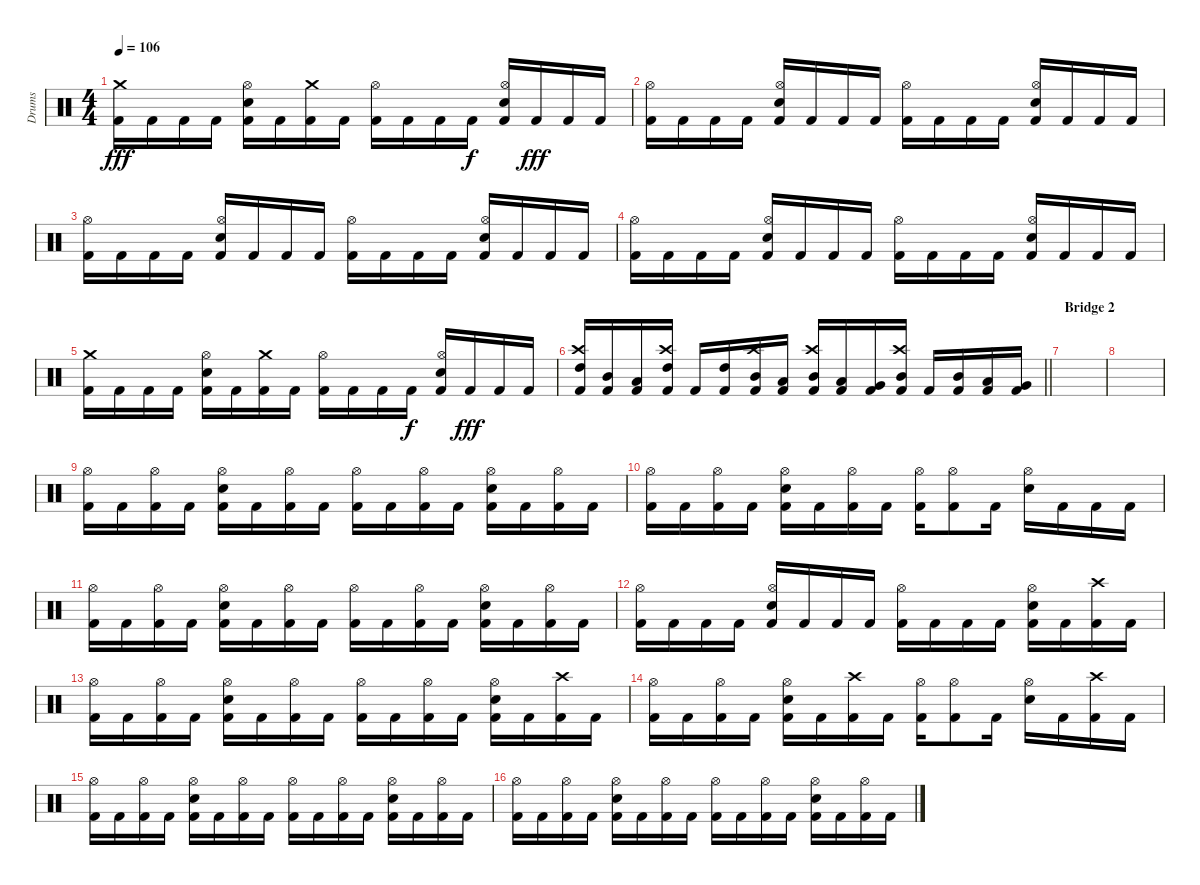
\track ("Drums" "Drums") {instrument percussion}
\staff {score}
\articulation defaults
\ts (4 4)
\tempo 106
\clef neutral
\ks c
("Crash medium (hit)" "Kick (hit) 2").16{dy fff} "Kick (hit) 2".16 "Kick (hit) 2".16 "Kick (hit) 2".16 ("Hi-Hat (open)" "Snare (hit) 2" "Kick (hit) 2").16 "Kick (hit) 2".16 ("Crash medium (hit)" "Kick (hit) 2").16 "Kick (hit) 2".16 ("Hi-Hat (open)" "Kick (hit) 2").16 "Kick (hit) 2".16 "Kick (hit) 2".16 "Kick (hit) 2".16{dy f} ("Hi-Hat (open)" "Snare (hit) 2" "Kick (hit) 2").16 "Kick (hit) 2".16{dy fff} "Kick (hit) 2".16 "Kick (hit) 2".16 |
("Hi-Hat (open)" "Kick (hit) 2").16 "Kick (hit) 2".16 "Kick (hit) 2".16 "Kick (hit) 2".16 ("Hi-Hat (open)" "Snare (hit) 2" "Kick (hit) 2").16 "Kick (hit) 2".16 "Kick (hit) 2".16 "Kick (hit) 2".16 ("Hi-Hat (open)" "Kick (hit) 2").16 "Kick (hit) 2".16 "Kick (hit) 2".16 "Kick (hit) 2".16 ("Hi-Hat (open)" "Snare (hit) 2" "Kick (hit) 2").16 "Kick (hit) 2".16 "Kick (hit) 2".16 "Kick (hit) 2".16 |
("Hi-Hat (open)" "Kick (hit) 2").16 "Kick (hit) 2".16 "Kick (hit) 2".16 "Kick (hit) 2".16 ("Hi-Hat (open)" "Snare (hit) 2" "Kick (hit) 2").16 "Kick (hit) 2".16 "Kick (hit) 2".16 "Kick (hit) 2".16 ("Hi-Hat (open)" "Kick (hit) 2").16 "Kick (hit) 2".16 "Kick (hit) 2".16 "Kick (hit) 2".16 ("Hi-Hat (open)" "Snare (hit) 2" "Kick (hit) 2").16 "Kick (hit) 2".16 "Kick (hit) 2".16 "Kick (hit) 2".16 |
("Hi-Hat (open)" "Kick (hit) 2").16 "Kick (hit) 2".16 "Kick (hit) 2".16 "Kick (hit) 2".16 ("Hi-Hat (open)" "Snare (hit) 2" "Kick (hit) 2").16 "Kick (hit) 2".16 "Kick (hit) 2".16 "Kick (hit) 2".16 ("Hi-Hat (open)" "Kick (hit) 2").16 "Kick (hit) 2".16 "Kick (hit) 2".16 "Kick (hit) 2".16 ("Hi-Hat (open)" "Snare (hit) 2" "Kick (hit) 2").16 "Kick (hit) 2".16 "Kick (hit) 2".16 "Kick (hit) 2".16 |
("Crash medium (hit)" "Kick (hit) 2").16 "Kick (hit) 2".16 "Kick (hit) 2".16 "Kick (hit) 2".16 ("Hi-Hat (open)" "Snare (hit) 2" "Kick (hit) 2").16 "Kick (hit) 2".16 ("Crash medium (hit)" "Kick (hit) 2").16 "Kick (hit) 2".16 ("Hi-Hat (open)" "Kick (hit) 2").16 "Kick (hit) 2".16 "Kick (hit) 2".16 "Kick (hit) 2".16{dy f} ("Hi-Hat (open)" "Snare (hit) 2" "Kick (hit) 2").16 "Kick (hit) 2".16{dy fff} "Kick (hit) 2".16 "Kick (hit) 2".16 |
\barLineRight lightlight
("Crash high (hit)" "High Tom (hit)" "Kick (hit) 2").16 ("Mid Tom (hit)" "Kick (hit) 2").16 ("Low Tom (hit)" "Kick (hit) 2").16 ("Crash high (hit)" "High Tom (hit)" "Kick (hit) 2").16 "Kick (hit) 2".16 ("High Tom (hit)" "Kick (hit) 2").16 ("Crash high (hit)" "Mid Tom (hit)" "Kick (hit) 2").16 ("Low Tom (hit)" "Kick (hit) 2").16 ("Crash high (hit)" "Mid Tom (hit)" "Kick (hit) 2").16 ("Low Tom (hit)" "Kick (hit) 2").16 ("Very Low Tom (hit)" "Kick (hit) 2").16 ("Crash high (hit)" "Mid Tom (hit)" "Kick (hit) 2").16 "Kick (hit) 2".16 ("Mid Tom (hit)" "Kick (hit) 2").16 ("Low Tom (hit)" "Kick (hit) 2").16 ("Very Low Tom (hit)" "Kick (hit) 2").16 |
\section ("" "Bridge 2")
|
|
("Hi-Hat (open)" "Kick (hit) 2").16 "Kick (hit) 2".16 ("Hi-Hat (open)" "Kick (hit) 2").16 "Kick (hit) 2".16 ("Hi-Hat (open)" "Snare (hit) 2" "Kick (hit) 2").16 "Kick (hit) 2".16 ("Hi-Hat (open)" "Kick (hit) 2").16 "Kick (hit) 2".16 ("Hi-Hat (open)" "Kick (hit) 2").16 "Kick (hit) 2".16 ("Hi-Hat (open)" "Kick (hit) 2").16 "Kick (hit) 2".16 ("Hi-Hat (open)" "Snare (hit) 2" "Kick (hit) 2").16 "Kick (hit) 2".16 ("Hi-Hat (open)" "Kick (hit) 2").16 "Kick (hit) 2".16 |
("Hi-Hat (open)" "Kick (hit) 2").16 "Kick (hit) 2".16 ("Hi-Hat (open)" "Kick (hit) 2").16 "Kick (hit) 2".16 ("Hi-Hat (open)" "Snare (hit) 2" "Kick (hit) 2").16 "Kick (hit) 2".16 ("Hi-Hat (open)" "Kick (hit) 2").16 "Kick (hit) 2".16 ("Hi-Hat (open)" "Kick (hit) 2").16 ("Hi-Hat (open)" "Kick (hit) 2").8 "Kick (hit) 2".16 ("Hi-Hat (open)" "Snare (hit) 2").16 "Kick (hit) 2".16 "Kick (hit) 2".16 "Kick (hit) 2".16 |
("Hi-Hat (open)" "Kick (hit) 2").16 "Kick (hit) 2".16 ("Hi-Hat (open)" "Kick (hit) 2").16 "Kick (hit) 2".16 ("Hi-Hat (open)" "Snare (hit) 2" "Kick (hit) 2").16 "Kick (hit) 2".16 ("Hi-Hat (open)" "Kick (hit) 2").16 "Kick (hit) 2".16 ("Hi-Hat (open)" "Kick (hit) 2").16 "Kick (hit) 2".16 ("Hi-Hat (open)" "Kick (hit) 2").16 "Kick (hit) 2".16 ("Hi-Hat (open)" "Snare (hit) 2" "Kick (hit) 2").16 "Kick (hit) 2".16 ("Hi-Hat (open)" "Kick (hit) 2").16 "Kick (hit) 2".16 |
("Hi-Hat (open)" "Kick (hit) 2").16 "Kick (hit) 2".16 "Kick (hit) 2".16 "Kick (hit) 2".16 ("Hi-Hat (open)" "Snare (hit) 2" "Kick (hit) 2").16 "Kick (hit) 2".16 "Kick (hit) 2".16 "Kick (hit) 2".16 ("Hi-Hat (open)" "Kick (hit) 2").16 "Kick (hit) 2".16 "Kick (hit) 2".16 "Kick (hit) 2".16 ("Hi-Hat (open)" "Snare (hit) 2" "Kick (hit) 2").16 "Kick (hit) 2".16 ("Crash high (hit)" "Kick (hit) 2").16 "Kick (hit) 2".16 |
("Hi-Hat (open)" "Kick (hit) 2").16 "Kick (hit) 2".16 ("Hi-Hat (open)" "Kick (hit) 2").16 "Kick (hit) 2".16 ("Hi-Hat (open)" "Snare (hit) 2" "Kick (hit) 2").16 "Kick (hit) 2".16 ("Hi-Hat (open)" "Kick (hit) 2").16 "Kick (hit) 2".16 ("Hi-Hat (open)" "Kick (hit) 2").16 "Kick (hit) 2".16 ("Hi-Hat (open)" "Kick (hit) 2").16 "Kick (hit) 2".16 ("Hi-Hat (open)" "Snare (hit) 2" "Kick (hit) 2").16 "Kick (hit) 2".16 ("Crash high (hit)" "Kick (hit) 2").16 "Kick (hit) 2".16 |
("Hi-Hat (open)" "Kick (hit) 2").16 "Kick (hit) 2".16 ("Hi-Hat (open)" "Kick (hit) 2").16 "Kick (hit) 2".16 ("Hi-Hat (open)" "Snare (hit) 2" "Kick (hit) 2").16 "Kick (hit) 2".16 ("Crash high (hit)" "Kick (hit) 2").16 "Kick (hit) 2".16 ("Hi-Hat (open)" "Kick (hit) 2").16 ("Hi-Hat (open)" "Kick (hit) 2").8 "Kick (hit) 2".16 ("Hi-Hat (open)" "Snare (hit) 2").16 "Kick (hit) 2".16 ("Crash high (hit)" "Kick (hit) 2").16 "Kick (hit) 2".16 |
("Hi-Hat (open)" "Kick (hit) 2").16 "Kick (hit) 2".16 ("Hi-Hat (open)" "Kick (hit) 2").16 "Kick (hit) 2".16 ("Hi-Hat (open)" "Snare (hit) 2" "Kick (hit) 2").16 "Kick (hit) 2".16 ("Hi-Hat (open)" "Kick (hit) 2").16 "Kick (hit) 2".16 ("Hi-Hat (open)" "Kick (hit) 2").16 "Kick (hit) 2".16 ("Hi-Hat (open)" "Kick (hit) 2").16 "Kick (hit) 2".16 ("Hi-Hat (open)" "Snare (hit) 2" "Kick (hit) 2").16 "Kick (hit) 2".16 ("Hi-Hat (open)" "Kick (hit) 2").16 "Kick (hit) 2".16 |
("Hi-Hat (open)" "Kick (hit) 2").16 "Kick (hit) 2".16 ("Hi-Hat (open)" "Kick (hit) 2").16 "Kick (hit) 2".16 ("Hi-Hat (open)" "Snare (hit) 2" "Kick (hit) 2").16 "Kick (hit) 2".16 ("Hi-Hat (open)" "Kick (hit) 2").16 "Kick (hit) 2".16 ("Hi-Hat (open)" "Kick (hit) 2").16 "Kick (hit) 2".16 ("Hi-Hat (open)" "Kick (hit) 2").16 "Kick (hit) 2".16 ("Hi-Hat (open)" "Snare (hit) 2" "Kick (hit) 2").16 "Kick (hit) 2".16 ("Hi-Hat (open)" "Kick (hit) 2").16 "Kick (hit) 2".16
